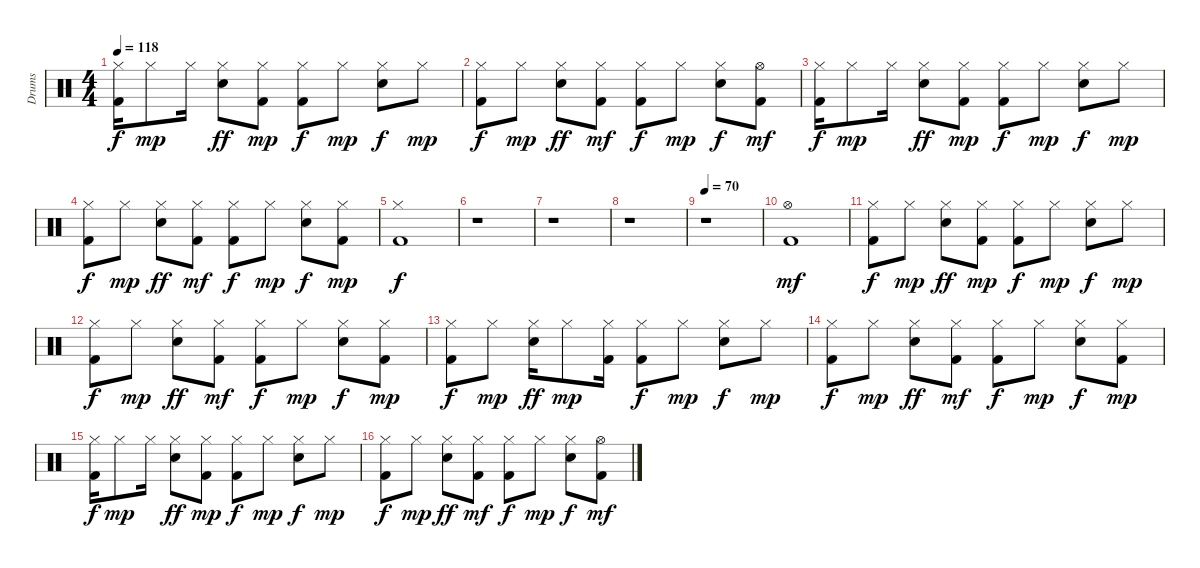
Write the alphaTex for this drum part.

\track ("Drums" "Drums") {instrument percussion}
\staff {score}
\articulation defaults
\ts (4 4)
\tempo 118
\clef neutral
\ks c
("Kick (hit) 2" "Hi-Hat (closed)").16{dy f} "Hi-Hat (closed)".8{dy mp} "Hi-Hat (closed)".16 ("Snare (hit) 2" "Hi-Hat (closed)").8{dy ff} ("Kick (hit) 2" "Hi-Hat (closed)").8{dy mp} ("Kick (hit) 2" "Hi-Hat (closed)").8{dy f} "Hi-Hat (closed)".8{dy mp} ("Snare (hit) 2" "Hi-Hat (closed)").8{dy f} "Hi-Hat (closed)".8{dy mp} |
("Kick (hit) 2" "Hi-Hat (closed)").8{dy f} "Hi-Hat (closed)".8{dy mp} ("Snare (hit) 2" "Hi-Hat (closed)").8{dy ff} ("Kick (hit) 2" "Hi-Hat (closed)").8{dy mf} ("Kick (hit) 2" "Hi-Hat (closed)").8{dy f} "Hi-Hat (closed)".8{dy mp} ("Snare (hit) 2" "Hi-Hat (closed)").8{dy f} ("Kick (hit) 2" "Hi-Hat (open)").8{dy mf} |
("Kick (hit) 2" "Hi-Hat (closed)").16{dy f} "Hi-Hat (closed)".8{dy mp} "Hi-Hat (closed)".16 ("Snare (hit) 2" "Hi-Hat (closed)").8{dy ff} ("Kick (hit) 2" "Hi-Hat (closed)").8{dy mp} ("Kick (hit) 2" "Hi-Hat (closed)").8{dy f} "Hi-Hat (closed)".8{dy mp} ("Snare (hit) 2" "Hi-Hat (closed)").8{dy f} "Hi-Hat (closed)".8{dy mp} |
("Kick (hit) 2" "Hi-Hat (closed)").8{dy f} "Hi-Hat (closed)".8{dy mp} ("Snare (hit) 2" "Hi-Hat (closed)").8{dy ff} ("Kick (hit) 2" "Hi-Hat (closed)").8{dy mf} ("Kick (hit) 2" "Hi-Hat (closed)").8{dy f} "Hi-Hat (closed)".8{dy mp} ("Snare (hit) 2" "Hi-Hat (closed)").8{dy f} ("Kick (hit) 2" "Hi-Hat (closed)").8{dy mp} |
("Kick (hit) 2" "Hi-Hat (closed)").1{dy f} |
r.1 |
r.1 |
r.1 |
\tempo 70
r.1 |
("Kick (hit) 2" "Hi-Hat (open)").1{dy mf} |
("Kick (hit) 2" "Hi-Hat (closed)").8{dy f} "Hi-Hat (closed)".8{dy mp} ("Snare (hit) 2" "Hi-Hat (closed)").8{dy ff} ("Kick (hit) 2" "Hi-Hat (closed)").8{dy mp} ("Kick (hit) 2" "Hi-Hat (closed)").8{dy f} "Hi-Hat (closed)".8{dy mp} ("Snare (hit) 2" "Hi-Hat (closed)").8{dy f} "Hi-Hat (closed)".8{dy mp} |
("Kick (hit) 2" "Hi-Hat (closed)").8{dy f} "Hi-Hat (closed)".8{dy mp} ("Snare (hit) 2" "Hi-Hat (closed)").8{dy ff} ("Kick (hit) 2" "Hi-Hat (closed)").8{dy mf} ("Kick (hit) 2" "Hi-Hat (closed)").8{dy f} "Hi-Hat (closed)".8{dy mp} ("Snare (hit) 2" "Hi-Hat (closed)").8{dy f} ("Kick (hit) 2" "Hi-Hat (closed)").8{dy mp} |
("Kick (hit) 2" "Hi-Hat (closed)").8{dy f} "Hi-Hat (closed)".8{dy mp} ("Snare (hit) 2" "Hi-Hat (closed)").16{dy ff} "Hi-Hat (closed)".8{dy mp} ("Kick (hit) 2" "Hi-Hat (closed)").16 ("Kick (hit) 2" "Hi-Hat (closed)").8{dy f} "Hi-Hat (closed)".8{dy mp} ("Snare (hit) 2" "Hi-Hat (closed)").8{dy f} "Hi-Hat (closed)".8{dy mp} |
("Kick (hit) 2" "Hi-Hat (closed)").8{dy f} "Hi-Hat (closed)".8{dy mp} ("Snare (hit) 2" "Hi-Hat (closed)").8{dy ff} ("Kick (hit) 2" "Hi-Hat (closed)").8{dy mf} ("Kick (hit) 2" "Hi-Hat (closed)").8{dy f} "Hi-Hat (closed)".8{dy mp} ("Snare (hit) 2" "Hi-Hat (closed)").8{dy f} ("Kick (hit) 2" "Hi-Hat (closed)").8{dy mp} |
("Kick (hit) 2" "Hi-Hat (closed)").16{dy f} "Hi-Hat (closed)".8{dy mp} "Hi-Hat (closed)".16 ("Snare (hit) 2" "Hi-Hat (closed)").8{dy ff} ("Kick (hit) 2" "Hi-Hat (closed)").8{dy mp} ("Kick (hit) 2" "Hi-Hat (closed)").8{dy f} "Hi-Hat (closed)".8{dy mp} ("Snare (hit) 2" "Hi-Hat (closed)").8{dy f} "Hi-Hat (closed)".8{dy mp} |
("Kick (hit) 2" "Hi-Hat (closed)").8{dy f} "Hi-Hat (closed)".8{dy mp} ("Snare (hit) 2" "Hi-Hat (closed)").8{dy ff} ("Kick (hit) 2" "Hi-Hat (closed)").8{dy mf} ("Kick (hit) 2" "Hi-Hat (closed)").8{dy f} "Hi-Hat (closed)".8{dy mp} ("Snare (hit) 2" "Hi-Hat (closed)").8{dy f} ("Kick (hit) 2" "Hi-Hat (open)").8{dy mf}
